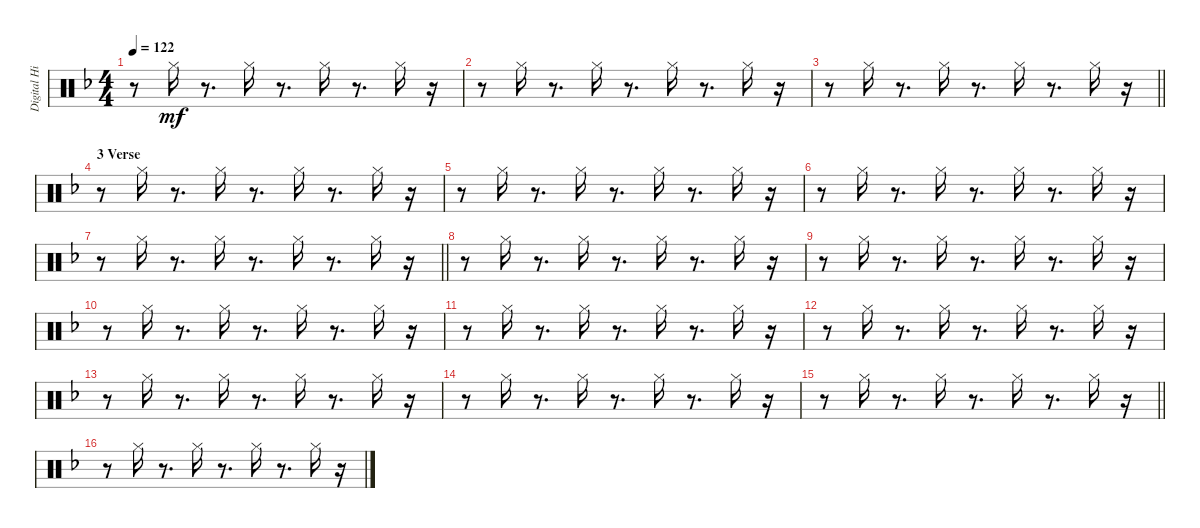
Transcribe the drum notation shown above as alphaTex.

\track ("Digital Hi-Hat (Stephen Morris)" "Digital Hi") {instrument percussion}
\staff {score}
\articulation defaults
\ts (4 4)
\tempo 122
\clef neutral
\ks f
r.8{dy mf} "Hi-Hat (closed)".16 r.8{d} "Hi-Hat (closed)".16 r.8{d} "Hi-Hat (closed)".16 r.8{d} "Hi-Hat (closed)".16 r.16 |
r.8 "Hi-Hat (closed)".16 r.8{d} "Hi-Hat (closed)".16 r.8{d} "Hi-Hat (closed)".16 r.8{d} "Hi-Hat (closed)".16 r.16 |
\barLineRight lightlight
r.8 "Hi-Hat (closed)".16 r.8{d} "Hi-Hat (closed)".16 r.8{d} "Hi-Hat (closed)".16 r.8{d} "Hi-Hat (closed)".16 r.16 |
\section ("" "3 Verse")
r.8 "Hi-Hat (closed)".16 r.8{d} "Hi-Hat (closed)".16 r.8{d} "Hi-Hat (closed)".16 r.8{d} "Hi-Hat (closed)".16 r.16 |
r.8 "Hi-Hat (closed)".16 r.8{d} "Hi-Hat (closed)".16 r.8{d} "Hi-Hat (closed)".16 r.8{d} "Hi-Hat (closed)".16 r.16 |
r.8 "Hi-Hat (closed)".16 r.8{d} "Hi-Hat (closed)".16 r.8{d} "Hi-Hat (closed)".16 r.8{d} "Hi-Hat (closed)".16 r.16 |
\barLineRight lightlight
r.8 "Hi-Hat (closed)".16 r.8{d} "Hi-Hat (closed)".16 r.8{d} "Hi-Hat (closed)".16 r.8{d} "Hi-Hat (closed)".16 r.16 |
r.8 "Hi-Hat (closed)".16 r.8{d} "Hi-Hat (closed)".16 r.8{d} "Hi-Hat (closed)".16 r.8{d} "Hi-Hat (closed)".16 r.16 |
r.8 "Hi-Hat (closed)".16 r.8{d} "Hi-Hat (closed)".16 r.8{d} "Hi-Hat (closed)".16 r.8{d} "Hi-Hat (closed)".16 r.16 |
r.8 "Hi-Hat (closed)".16 r.8{d} "Hi-Hat (closed)".16 r.8{d} "Hi-Hat (closed)".16 r.8{d} "Hi-Hat (closed)".16 r.16 |
r.8 "Hi-Hat (closed)".16 r.8{d} "Hi-Hat (closed)".16 r.8{d} "Hi-Hat (closed)".16 r.8{d} "Hi-Hat (closed)".16 r.16 |
r.8 "Hi-Hat (closed)".16 r.8{d} "Hi-Hat (closed)".16 r.8{d} "Hi-Hat (closed)".16 r.8{d} "Hi-Hat (closed)".16 r.16 |
r.8 "Hi-Hat (closed)".16 r.8{d} "Hi-Hat (closed)".16 r.8{d} "Hi-Hat (closed)".16 r.8{d} "Hi-Hat (closed)".16 r.16 |
r.8 "Hi-Hat (closed)".16 r.8{d} "Hi-Hat (closed)".16 r.8{d} "Hi-Hat (closed)".16 r.8{d} "Hi-Hat (closed)".16 r.16 |
\barLineRight lightlight
r.8 "Hi-Hat (closed)".16 r.8{d} "Hi-Hat (closed)".16 r.8{d} "Hi-Hat (closed)".16 r.8{d} "Hi-Hat (closed)".16 r.16 |
r.8 "Hi-Hat (closed)".16 r.8{d} "Hi-Hat (closed)".16 r.8{d} "Hi-Hat (closed)".16 r.8{d} "Hi-Hat (closed)".16 r.16
